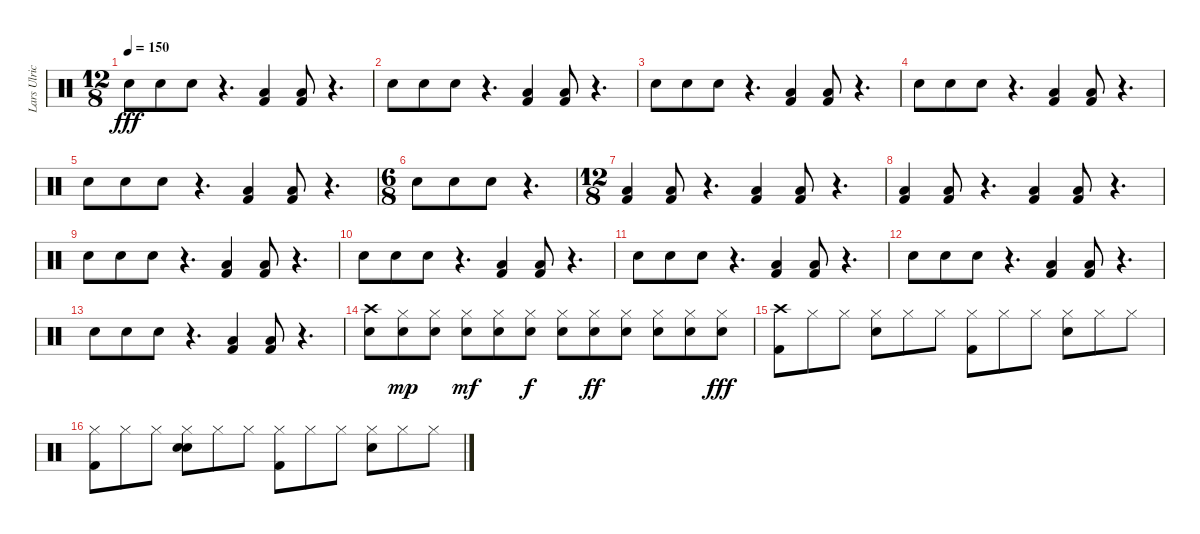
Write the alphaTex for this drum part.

\track ("Lars Ulrich (Drums)" "Lars Ulric") {instrument percussion}
\staff {score}
\articulation defaults
\ts (12 8)
\tempo 150
\clef neutral
\ks c "Electric Snare (hit)".8{dy fff} "Electric Snare (hit)".8 "Electric Snare (hit)".8
r.4{d} ("Low Floor Tom (hit)" "Kick (hit) 2").4 ("Low Floor Tom (hit)" "Kick (hit) 2").8 r.4{d} |
"Electric Snare (hit)".8 "Electric Snare (hit)".8 "Electric Snare (hit)".8 r.4{d} ("Low Floor Tom (hit)" "Kick (hit) 2").4 ("Low Floor Tom (hit)" "Kick (hit) 2").8 r.4{d} |
"Electric Snare (hit)".8 "Electric Snare (hit)".8 "Electric Snare (hit)".8 r.4{d} ("Low Floor Tom (hit)" "Kick (hit) 2").4 ("Low Floor Tom (hit)" "Kick (hit) 2").8 r.4{d} |
"Electric Snare (hit)".8 "Electric Snare (hit)".8 "Electric Snare (hit)".8 r.4{d} ("Low Floor Tom (hit)" "Kick (hit) 2").4 ("Low Floor Tom (hit)" "Kick (hit) 2").8 r.4{d} |
"Electric Snare (hit)".8 "Electric Snare (hit)".8 "Electric Snare (hit)".8 r.4{d} ("Low Floor Tom (hit)" "Kick (hit) 2").4 ("Low Floor Tom (hit)" "Kick (hit) 2").8 r.4{d} |
\ts (6 8)
"Electric Snare (hit)".8 "Electric Snare (hit)".8 "Electric Snare (hit)".8 r.4{d} |
\ts (12 8)
("Low Floor Tom (hit)" "Kick (hit) 2").4 ("Low Floor Tom (hit)" "Kick (hit) 2").8 r.4{d} ("Low Floor Tom (hit)" "Kick (hit) 2").4 ("Low Floor Tom (hit)" "Kick (hit) 2").8 r.4{d} |
("Low Floor Tom (hit)" "Kick (hit) 2").4 ("Low Floor Tom (hit)" "Kick (hit) 2").8 r.4{d} ("Low Floor Tom (hit)" "Kick (hit) 2").4 ("Low Floor Tom (hit)" "Kick (hit) 2").8 r.4{d} |
"Electric Snare (hit)".8 "Electric Snare (hit)".8 "Electric Snare (hit)".8 r.4{d} ("Low Floor Tom (hit)" "Kick (hit) 2").4 ("Low Floor Tom (hit)" "Kick (hit) 2").8 r.4{d} |
"Electric Snare (hit)".8 "Electric Snare (hit)".8 "Electric Snare (hit)".8 r.4{d} ("Low Floor Tom (hit)" "Kick (hit) 2").4 ("Low Floor Tom (hit)" "Kick (hit) 2").8 r.4{d} |
"Electric Snare (hit)".8 "Electric Snare (hit)".8 "Electric Snare (hit)".8 r.4{d} ("Low Floor Tom (hit)" "Kick (hit) 2").4 ("Low Floor Tom (hit)" "Kick (hit) 2").8 r.4{d} |
"Electric Snare (hit)".8 "Electric Snare (hit)".8 "Electric Snare (hit)".8 r.4{d} ("Low Floor Tom (hit)" "Kick (hit) 2").4 ("Low Floor Tom (hit)" "Kick (hit) 2").8 r.4{d} |
"Electric Snare (hit)".8 "Electric Snare (hit)".8 "Electric Snare (hit)".8 r.4{d} ("Low Floor Tom (hit)" "Kick (hit) 2").4 ("Low Floor Tom (hit)" "Kick (hit) 2").8 r.4{d} |
("Crash high (hit)" "Electric Snare (hit)").8 ("Hi-Hat (closed)" "Electric Snare (hit)").8{dy mp} ("Hi-Hat (closed)" "Electric Snare (hit)").8 ("Hi-Hat (closed)" "Electric Snare (hit)").8{dy mf} ("Hi-Hat (closed)" "Electric Snare (hit)").8 ("Hi-Hat (closed)" "Electric Snare (hit)").8{dy f} ("Hi-Hat (closed)" "Electric Snare (hit)").8 ("Hi-Hat (closed)" "Electric Snare (hit)").8{dy ff} ("Hi-Hat (closed)" "Electric Snare (hit)").8 ("Hi-Hat (closed)" "Electric Snare (hit)").8 ("Hi-Hat (closed)" "Electric Snare (hit)").8 ("Hi-Hat (closed)" "Electric Snare (hit)").8{dy fff} |
("Crash high (hit)" "Kick (hit) 2").8 "Hi-Hat (closed)".8 "Hi-Hat (closed)".8 ("Hi-Hat (closed)" "Electric Snare (hit)").8 "Hi-Hat (closed)".8 "Hi-Hat (closed)".8 ("Hi-Hat (closed)" "Kick (hit) 2").8 "Hi-Hat (closed)".8 "Hi-Hat (closed)".8 ("Hi-Hat (closed)" "Electric Snare (hit)").8 "Hi-Hat (closed)".8 "Hi-Hat (closed)".8 |
("Hi-Hat (closed)" "Kick (hit) 2").8 "Hi-Hat (closed)".8 "Hi-Hat (closed)".8 ("Hi-Hat (closed)" "Electric Snare (hit)" "Electric Snare (hit)").8 "Hi-Hat (closed)".8 "Hi-Hat (closed)".8 ("Hi-Hat (closed)" "Kick (hit) 2").8 "Hi-Hat (closed)".8 "Hi-Hat (closed)".8 ("Hi-Hat (closed)" "Electric Snare (hit)").8 "Hi-Hat (closed)".8 "Hi-Hat (closed)".8
